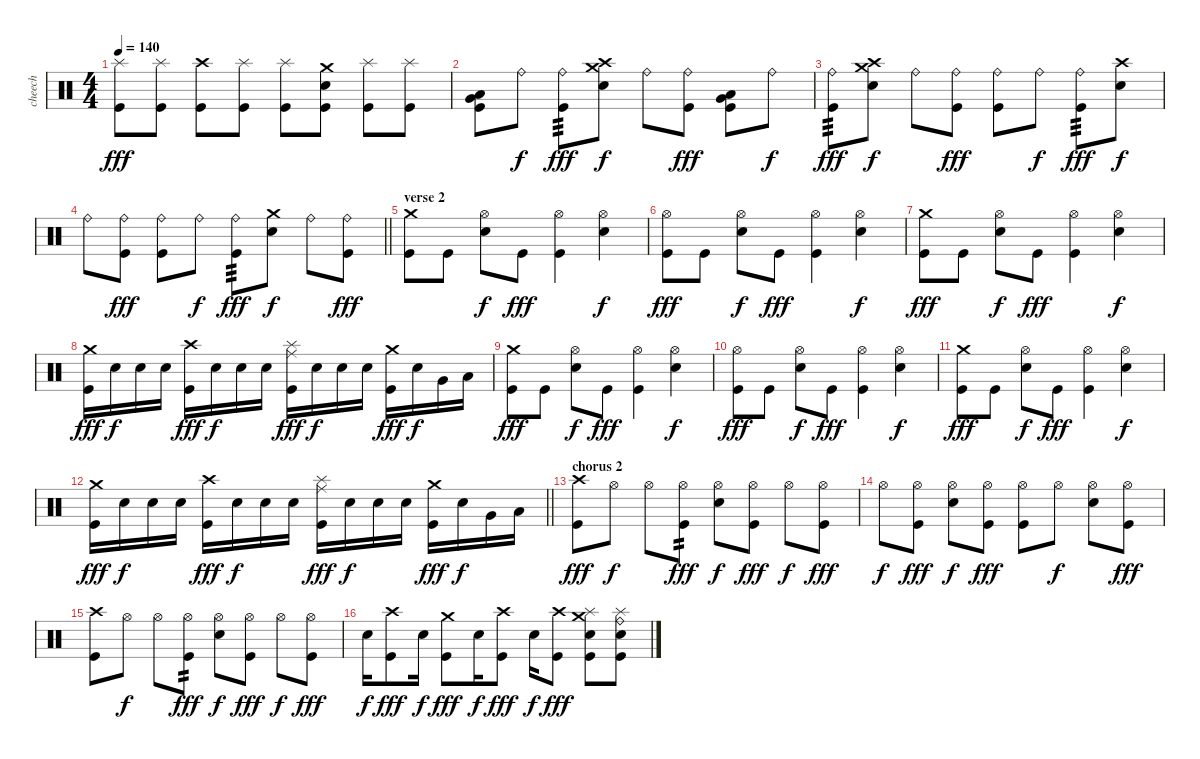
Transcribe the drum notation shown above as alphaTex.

\track ("cheech" "cheech") {solo instrument percussion}
\staff {score}
\articulation defaults
\ts (4 4)
\tempo 140
\clef neutral
\ks c
("Splash (hit)" "Kick (hit)").8{dy fff} ("Splash (hit)" "Kick (hit)").8 ("Crash high (hit)" "Kick (hit)").8 ("Splash (hit)" "Kick (hit)").8 ("Splash (hit)" "Kick (hit)").8 ("Crash medium (hit)" "Electric Snare (hit)" "Kick (hit)").8 ("Splash (hit)" "Kick (hit)").8 ("Splash (hit)" "Kick (hit)").8 |
("Very Low Tom (hit)" "Low Floor Tom (hit)" "Kick (hit)").8 "Ride (bell)".8{dy f} ("Ride (bell)" "Kick (hit)").8{tp 3 dy fff} ("Crash high (hit)" "Crash medium (hit)" "Electric Snare (hit)").8{dy f} "Ride (bell)".8 ("Ride (bell)" "Kick (hit)").8{dy fff} ("Very Low Tom (hit)" "Low Floor Tom (hit)" "Kick (hit)").8 "Ride (bell)".8{dy f} |
("Ride (bell)" "Kick (hit)").8{tp 3 dy fff} ("Crash high (hit)" "Crash medium (hit)" "Electric Snare (hit)").8{dy f} "Ride (bell)".8 ("Ride (bell)" "Kick (hit)").8{dy fff} ("Ride (bell)" "Kick (hit)").8 "Ride (bell)".8{dy f} ("Ride (bell)" "Kick (hit)").8{tp 3 dy fff} ("Crash high (hit)" "Electric Snare (hit)").8{dy f} |
\barLineRight lightlight "Ride (bell)".8
("Ride (bell)" "Kick (hit)").8{dy fff} ("Ride (bell)" "Kick (hit)").8 "Ride (bell)".8{dy f} ("Ride (bell)" "Kick (hit)").8{tp 3 dy fff} ("Crash medium (hit)" "Electric Snare (hit)").8{dy f} "Ride (bell)".8 ("Ride (bell)" "Kick (hit)").8{dy fff} |
\section ("" "verse 2")
("Crash medium (hit)" "Kick (hit)").8 "Kick (hit)".8 ("Hi-Hat (open)" "Electric Snare (hit)").8{dy f} "Kick (hit)".8{dy fff} ("Hi-Hat (open)" "Kick (hit)").4 ("Hi-Hat (open)" "Electric Snare (hit)").4{dy f} |
("Hi-Hat (open)" "Kick (hit)").8{dy fff} "Kick (hit)".8 ("Hi-Hat (open)" "Electric Snare (hit)").8{dy f} "Kick (hit)".8{dy fff} ("Hi-Hat (open)" "Kick (hit)").4 ("Hi-Hat (open)" "Electric Snare (hit)").4{dy f} |
("Crash medium (hit)" "Kick (hit)").8{dy fff} "Kick (hit)".8 ("Hi-Hat (open)" "Electric Snare (hit)").8{dy f} "Kick (hit)".8{dy fff} ("Hi-Hat (open)" "Kick (hit)").4 ("Hi-Hat (open)" "Electric Snare (hit)").4{dy f} |
("Crash medium (hit)" "Kick (hit)").16{dy fff} "Electric Snare (hit)".16{dy f} "Electric Snare (hit)".16 "Electric Snare (hit)".16 ("Crash high (hit)" "Kick (hit)").16{dy fff} "Electric Snare (hit)".16{dy f} "Electric Snare (hit)".16 "Electric Snare (hit)".16 ("Splash (hit)" "Ride (middle)" "Kick (hit)").16{dy fff} "Electric Snare (hit)".16{dy f} "Electric Snare (hit)".16 "Electric Snare (hit)".16 ("Crash medium (hit)" "Kick (hit)").16{dy fff} "Electric Snare (hit)".16{dy f} "Very Low Tom (hit)".16 "Low Floor Tom (hit)".16 |
("Crash medium (hit)" "Kick (hit)").8{dy fff} "Kick (hit)".8 ("Hi-Hat (open)" "Electric Snare (hit)").8{dy f} "Kick (hit)".8{dy fff} ("Hi-Hat (open)" "Kick (hit)").4 ("Hi-Hat (open)" "Electric Snare (hit)").4{dy f} |
("Hi-Hat (open)" "Kick (hit)").8{dy fff} "Kick (hit)".8 ("Hi-Hat (open)" "Electric Snare (hit)").8{dy f} "Kick (hit)".8{dy fff} ("Hi-Hat (open)" "Kick (hit)").4 ("Hi-Hat (open)" "Electric Snare (hit)").4{dy f} |
("Crash medium (hit)" "Kick (hit)").8{dy fff} "Kick (hit)".8 ("Hi-Hat (open)" "Electric Snare (hit)").8{dy f} "Kick (hit)".8{dy fff} ("Hi-Hat (open)" "Kick (hit)").4 ("Hi-Hat (open)" "Electric Snare (hit)").4{dy f} |
\barLineRight lightlight
("Crash medium (hit)" "Kick (hit)").16{dy fff} "Electric Snare (hit)".16{dy f} "Electric Snare (hit)".16 "Electric Snare (hit)".16 ("Crash high (hit)" "Kick (hit)").16{dy fff} "Electric Snare (hit)".16{dy f} "Electric Snare (hit)".16 "Electric Snare (hit)".16 ("Splash (hit)" "Ride (middle)" "Kick (hit)").16{dy fff} "Electric Snare (hit)".16{dy f} "Electric Snare (hit)".16 "Electric Snare (hit)".16 ("Crash medium (hit)" "Kick (hit)").16{dy fff} "Electric Snare (hit)".16{dy f} "Very Low Tom (hit)".16 "Low Floor Tom (hit)".16 |
\section ("" "chorus 2")
("Crash high (hit)" "Kick (hit)").8{dy fff} "Hi-Hat (open)".8{dy f} "Hi-Hat (open)".8 ("Hi-Hat (open)" "Kick (hit)").8{tp 2 dy fff} ("Hi-Hat (open)" "Electric Snare (hit)").8{dy f} ("Hi-Hat (open)" "Kick (hit)").8{dy fff} "Hi-Hat (open)".8{dy f} ("Hi-Hat (open)" "Kick (hit)").8{dy fff} |
"Hi-Hat (open)".8{dy f} ("Hi-Hat (open)" "Kick (hit)").8{dy fff} ("Hi-Hat (open)" "Electric Snare (hit)").8{dy f} ("Hi-Hat (open)" "Kick (hit)").8{dy fff} ("Hi-Hat (open)" "Kick (hit)").8 "Hi-Hat (open)".8{dy f} ("Hi-Hat (open)" "Electric Snare (hit)").8 ("Hi-Hat (open)" "Kick (hit)").8{dy fff} |
("Crash high (hit)" "Kick (hit)").8 "Hi-Hat (open)".8{dy f} "Hi-Hat (open)".8 ("Hi-Hat (open)" "Kick (hit)").8{tp 2 dy fff} ("Hi-Hat (open)" "Electric Snare (hit)").8{dy f} ("Hi-Hat (open)" "Kick (hit)").8{dy fff} "Hi-Hat (open)".8{dy f} ("Hi-Hat (open)" "Kick (hit)").8{dy fff} |
"Electric Snare (hit)".16{dy f} ("Crash high (hit)" "Kick (hit)").8{dy fff} "Electric Snare (hit)".16{dy f} ("Crash medium (hit)" "Kick (hit)").8{dy fff} "Electric Snare (hit)".16{dy f} ("Crash high (hit)" "Kick (hit)").8{dy fff} "Electric Snare (hit)".16{dy f} ("Crash high (hit)" "Kick (hit)").8{dy fff} ("Splash (hit)" "Crash medium (hit)" "Electric Snare (hit)" "Kick (hit)").8 ("Ride (bell)" "Splash (hit)" "Electric Snare (hit)" "Kick (hit)").8
